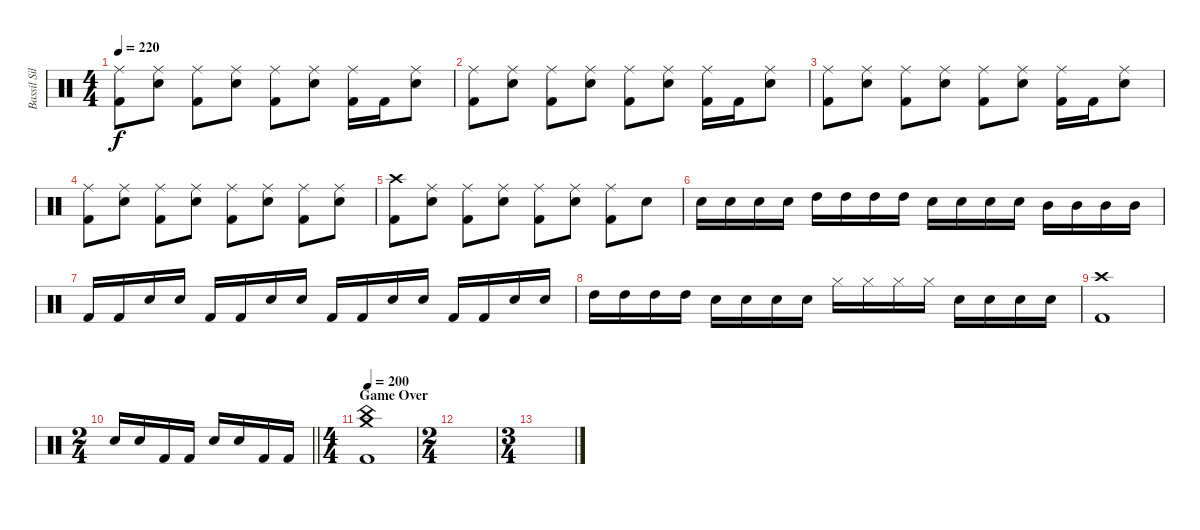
\track ("Bassil Silver-Hajo" "Bassil Sil") {instrument percussion}
\staff {score}
\articulation defaults
\ts (4 4)
\tempo 220
\clef neutral
\ks c
("Ride (middle)" "Kick (hit) 2").8{dy f} ("Ride (middle)" "Snare (hit) 2").8 ("Ride (middle)" "Kick (hit) 2").8 ("Ride (middle)" "Snare (hit) 2").8 ("Ride (middle)" "Kick (hit) 2").8 ("Ride (middle)" "Snare (hit) 2").8 ("Ride (middle)" "Kick (hit) 2").16 "Kick (hit) 2".16 ("Ride (middle)" "Snare (hit) 2").8 |
("Ride (middle)" "Kick (hit) 2").8 ("Ride (middle)" "Snare (hit) 2").8 ("Ride (middle)" "Kick (hit) 2").8 ("Ride (middle)" "Snare (hit) 2").8 ("Ride (middle)" "Kick (hit) 2").8 ("Ride (middle)" "Snare (hit) 2").8 ("Ride (middle)" "Kick (hit) 2").16 "Kick (hit) 2".16 ("Ride (middle)" "Snare (hit) 2").8 |
("Ride (middle)" "Kick (hit) 2").8 ("Ride (middle)" "Snare (hit) 2").8 ("Ride (middle)" "Kick (hit) 2").8 ("Ride (middle)" "Snare (hit) 2").8 ("Ride (middle)" "Kick (hit) 2").8 ("Ride (middle)" "Snare (hit) 2").8 ("Ride (middle)" "Kick (hit) 2").16 "Kick (hit) 2".16 ("Ride (middle)" "Snare (hit) 2").8 |
("Ride (middle)" "Kick (hit) 2").8 ("Ride (middle)" "Snare (hit) 2").8 ("Ride (middle)" "Kick (hit) 2").8 ("Ride (middle)" "Snare (hit) 2").8 ("Ride (middle)" "Kick (hit) 2").8 ("Ride (middle)" "Snare (hit) 2").8 ("Ride (middle)" "Kick (hit) 2").8 ("Ride (middle)" "Snare (hit) 2").8 |
("Crash high (hit)" "Kick (hit) 2").8 ("Ride (middle)" "Snare (hit) 2").8 ("Ride (middle)" "Kick (hit) 2").8 ("Ride (middle)" "Snare (hit) 2").8 ("Ride (middle)" "Kick (hit) 2").8 ("Ride (middle)" "Snare (hit) 2").8 ("Ride (middle)" "Kick (hit) 2").8 "Snare (hit) 2".8 |
"Snare (hit) 2".16 "Snare (hit) 2".16 "Snare (hit) 2".16 "Snare (hit) 2".16 "High Tom (hit)".16 "High Tom (hit)".16 "High Tom (hit)".16 "High Tom (hit)".16 "Snare (hit) 2".16 "Snare (hit) 2".16 "Snare (hit) 2".16 "Snare (hit) 2".16 "Mid Tom (hit)".16 "Mid Tom (hit)".16 "Mid Tom (hit)".16 "Mid Tom (hit)".16 |
"Kick (hit) 2".16 "Kick (hit) 2".16 "Snare (hit) 2".16 "Snare (hit) 2".16 "Kick (hit) 2".16 "Kick (hit) 2".16 "Snare (hit) 2".16 "Snare (hit) 2".16 "Kick (hit) 2".16 "Kick (hit) 2".16 "Snare (hit) 2".16 "Snare (hit) 2".16 "Kick (hit) 2".16 "Kick (hit) 2".16 "Snare (hit) 2".16 "Snare (hit) 2".16 |
"High Tom (hit)".16 "High Tom (hit)".16 "High Tom (hit)".16 "High Tom (hit)".16 "Snare (hit) 2".16 "Snare (hit) 2".16 "Snare (hit) 2".16 "Snare (hit) 2".16 "Hi-Hat (closed)".16 "Hi-Hat (closed)".16 "Hi-Hat (closed)".16 "Hi-Hat (closed)".16 "Snare (hit) 2".16 "Snare (hit) 2".16 "Snare (hit) 2".16 "Snare (hit) 2".16 |
("Crash high (hit)" "Kick (hit) 2").1 |
\ts (2 4)
\barLineRight lightlight "Snare (hit) 2".16 "Snare (hit) 2".16 "Kick (hit) 2".16 "Kick (hit) 2".16 "Snare (hit) 2".16 "Snare (hit) 2".16 "Kick (hit) 2".16 "Kick (hit) 2".16
|
\ts (4 4)
\section ("" "Game Over")
\tempo 200
("China (hit)" "Crash medium (hit)" "Kick (hit) 2").1 |
\ts (2 4)
|
\ts (3 4)
